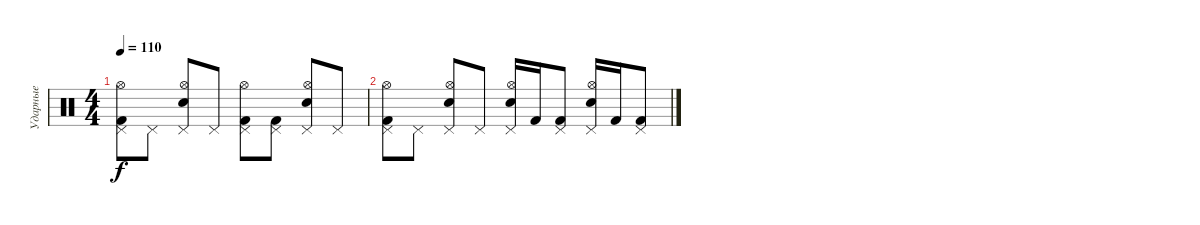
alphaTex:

\track ("Ударные" "Ударные") {instrument percussion}
\staff {score}
\articulation defaults
\ts (4 4)
\tempo 110
\clef neutral
\ks c
("Kick (hit) 2" "Pedal Hi-Hat (hit)" "Hi-Hat (open)").8{dy f} "Pedal Hi-Hat (hit)".8 ("Snare (hit) 2" "Pedal Hi-Hat (hit)" "Hi-Hat (open)").8 "Pedal Hi-Hat (hit)".8 ("Kick (hit) 2" "Pedal Hi-Hat (hit)" "Hi-Hat (open)").8 ("Kick (hit) 2" "Pedal Hi-Hat (hit)").8 ("Snare (hit) 2" "Pedal Hi-Hat (hit)" "Hi-Hat (open)").8 "Pedal Hi-Hat (hit)".8 |
("Kick (hit) 2" "Pedal Hi-Hat (hit)" "Hi-Hat (open)").8 "Pedal Hi-Hat (hit)".8 ("Snare (hit) 2" "Pedal Hi-Hat (hit)" "Hi-Hat (open)").8 "Pedal Hi-Hat (hit)".8 ("Snare (hit) 2" "Pedal Hi-Hat (hit)" "Hi-Hat (open)").16 "Kick (hit) 2".16 ("Kick (hit) 2" "Pedal Hi-Hat (hit)").8 ("Snare (hit) 2" "Pedal Hi-Hat (hit)" "Hi-Hat (open)").16 "Kick (hit) 2".16 ("Kick (hit) 2" "Pedal Hi-Hat (hit)").8
